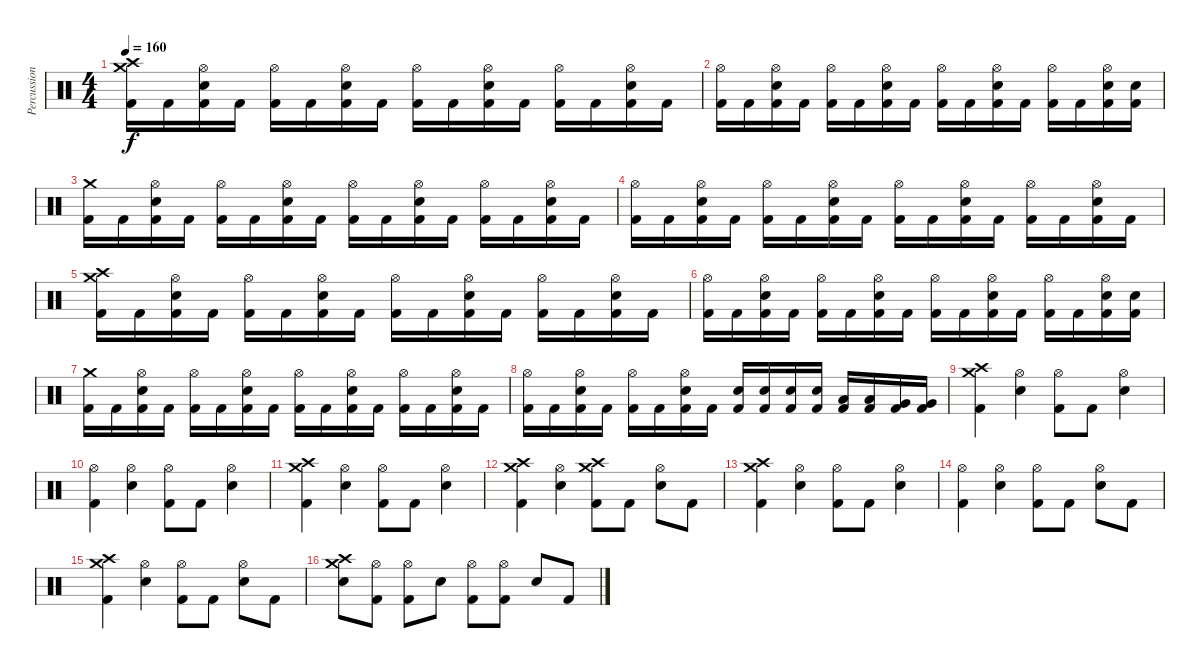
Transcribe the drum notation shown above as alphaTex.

\track ("Percussion" "Percussion") {instrument percussion}
\staff {score}
\articulation defaults
\ts (4 4)
\tempo 160
\clef neutral
\ks c
("Crash medium (hit)" "Crash high (hit)" "Kick (hit) 2").16{dy f} "Kick (hit) 2".16 ("Hi-Hat (open)" "Electric Snare (hit)" "Kick (hit) 2").16 "Kick (hit) 2".16 ("Hi-Hat (open)" "Kick (hit) 2").16 "Kick (hit) 2".16 ("Hi-Hat (open)" "Electric Snare (hit)" "Kick (hit) 2").16 "Kick (hit) 2".16 ("Hi-Hat (open)" "Kick (hit) 2").16 "Kick (hit) 2".16 ("Hi-Hat (open)" "Electric Snare (hit)" "Kick (hit) 2").16 "Kick (hit) 2".16 ("Hi-Hat (open)" "Kick (hit) 2").16 "Kick (hit) 2".16 ("Hi-Hat (open)" "Electric Snare (hit)" "Kick (hit) 2").16 "Kick (hit) 2".16 |
("Hi-Hat (open)" "Kick (hit) 2").16 "Kick (hit) 2".16 ("Hi-Hat (open)" "Electric Snare (hit)" "Kick (hit) 2").16 "Kick (hit) 2".16 ("Hi-Hat (open)" "Kick (hit) 2").16 "Kick (hit) 2".16 ("Hi-Hat (open)" "Electric Snare (hit)" "Kick (hit) 2").16 "Kick (hit) 2".16 ("Hi-Hat (open)" "Kick (hit) 2").16 "Kick (hit) 2".16 ("Hi-Hat (open)" "Electric Snare (hit)" "Kick (hit) 2").16 "Kick (hit) 2".16 ("Hi-Hat (open)" "Kick (hit) 2").16 "Kick (hit) 2".16 ("Hi-Hat (open)" "Electric Snare (hit)" "Kick (hit) 2").16 ("Electric Snare (hit)" "Kick (hit) 2").16 |
("Crash medium (hit)" "Kick (hit) 2").16 "Kick (hit) 2".16 ("Hi-Hat (open)" "Electric Snare (hit)" "Kick (hit) 2").16 "Kick (hit) 2".16 ("Hi-Hat (open)" "Kick (hit) 2").16 "Kick (hit) 2".16 ("Hi-Hat (open)" "Electric Snare (hit)" "Kick (hit) 2").16 "Kick (hit) 2".16 ("Hi-Hat (open)" "Kick (hit) 2").16 "Kick (hit) 2".16 ("Hi-Hat (open)" "Electric Snare (hit)" "Kick (hit) 2").16 "Kick (hit) 2".16 ("Hi-Hat (open)" "Kick (hit) 2").16 "Kick (hit) 2".16 ("Hi-Hat (open)" "Electric Snare (hit)" "Kick (hit) 2").16 "Kick (hit) 2".16 |
("Hi-Hat (open)" "Kick (hit) 2").16 "Kick (hit) 2".16 ("Hi-Hat (open)" "Electric Snare (hit)" "Kick (hit) 2").16 "Kick (hit) 2".16 ("Hi-Hat (open)" "Kick (hit) 2").16 "Kick (hit) 2".16 ("Hi-Hat (open)" "Electric Snare (hit)" "Kick (hit) 2").16 "Kick (hit) 2".16 ("Hi-Hat (open)" "Kick (hit) 2").16 "Kick (hit) 2".16 ("Hi-Hat (open)" "Electric Snare (hit)" "Kick (hit) 2").16 "Kick (hit) 2".16 ("Hi-Hat (open)" "Kick (hit) 2").16 "Kick (hit) 2".16 ("Hi-Hat (open)" "Electric Snare (hit)" "Kick (hit) 2").16 "Kick (hit) 2".16 |
("Crash medium (hit)" "Crash high (hit)" "Kick (hit) 2").16 "Kick (hit) 2".16 ("Hi-Hat (open)" "Electric Snare (hit)" "Kick (hit) 2").16 "Kick (hit) 2".16 ("Hi-Hat (open)" "Kick (hit) 2").16 "Kick (hit) 2".16 ("Hi-Hat (open)" "Electric Snare (hit)" "Kick (hit) 2").16 "Kick (hit) 2".16 ("Hi-Hat (open)" "Kick (hit) 2").16 "Kick (hit) 2".16 ("Hi-Hat (open)" "Electric Snare (hit)" "Kick (hit) 2").16 "Kick (hit) 2".16 ("Hi-Hat (open)" "Kick (hit) 2").16 "Kick (hit) 2".16 ("Hi-Hat (open)" "Electric Snare (hit)" "Kick (hit) 2").16 "Kick (hit) 2".16 |
("Hi-Hat (open)" "Kick (hit) 2").16 "Kick (hit) 2".16 ("Hi-Hat (open)" "Electric Snare (hit)" "Kick (hit) 2").16 "Kick (hit) 2".16 ("Hi-Hat (open)" "Kick (hit) 2").16 "Kick (hit) 2".16 ("Hi-Hat (open)" "Electric Snare (hit)" "Kick (hit) 2").16 "Kick (hit) 2".16 ("Hi-Hat (open)" "Kick (hit) 2").16 "Kick (hit) 2".16 ("Hi-Hat (open)" "Electric Snare (hit)" "Kick (hit) 2").16 "Kick (hit) 2".16 ("Hi-Hat (open)" "Kick (hit) 2").16 "Kick (hit) 2".16 ("Hi-Hat (open)" "Electric Snare (hit)" "Kick (hit) 2").16 ("Electric Snare (hit)" "Kick (hit) 2").16 |
("Crash medium (hit)" "Kick (hit) 2").16 "Kick (hit) 2".16 ("Hi-Hat (open)" "Electric Snare (hit)" "Kick (hit) 2").16 "Kick (hit) 2".16 ("Hi-Hat (open)" "Kick (hit) 2").16 "Kick (hit) 2".16 ("Hi-Hat (open)" "Electric Snare (hit)" "Kick (hit) 2").16 "Kick (hit) 2".16 ("Hi-Hat (open)" "Kick (hit) 2").16 "Kick (hit) 2".16 ("Hi-Hat (open)" "Electric Snare (hit)" "Kick (hit) 2").16 "Kick (hit) 2".16 ("Hi-Hat (open)" "Kick (hit) 2").16 "Kick (hit) 2".16 ("Hi-Hat (open)" "Electric Snare (hit)" "Kick (hit) 2").16 "Kick (hit) 2".16 |
("Hi-Hat (open)" "Kick (hit) 2").16 "Kick (hit) 2".16 ("Hi-Hat (open)" "Electric Snare (hit)" "Kick (hit) 2").16 "Kick (hit) 2".16 ("Hi-Hat (open)" "Kick (hit) 2").16 "Kick (hit) 2".16 ("Hi-Hat (open)" "Electric Snare (hit)" "Kick (hit) 2").16 "Kick (hit) 2".16 ("Electric Snare (hit)" "Kick (hit) 2").16 ("Electric Snare (hit)" "Kick (hit) 2").16 ("Electric Snare (hit)" "Kick (hit) 2").16 ("Electric Snare (hit)" "Kick (hit) 2").16 ("Low Tom (hit)" "Kick (hit) 2").16 ("Low Tom (hit)" "Kick (hit) 2").16 ("Very Low Tom (hit)" "Kick (hit) 2").16 ("Very Low Tom (hit)" "Kick (hit) 2").16 |
("Crash medium (hit)" "Crash high (hit)" "Kick (hit) 2").4 ("Hi-Hat (open)" "Electric Snare (hit)").4 ("Hi-Hat (open)" "Kick (hit) 2").8 "Kick (hit) 2".8 ("Hi-Hat (open)" "Electric Snare (hit)").4 |
("Hi-Hat (open)" "Kick (hit) 2").4 ("Hi-Hat (open)" "Electric Snare (hit)").4 ("Hi-Hat (open)" "Kick (hit) 2").8 "Kick (hit) 2".8 ("Hi-Hat (open)" "Electric Snare (hit)").4 |
("Crash medium (hit)" "Crash high (hit)" "Kick (hit) 2").4 ("Hi-Hat (open)" "Electric Snare (hit)").4 ("Hi-Hat (open)" "Kick (hit) 2").8 "Kick (hit) 2".8 ("Hi-Hat (open)" "Electric Snare (hit)").4 |
("Crash medium (hit)" "Crash high (hit)" "Kick (hit) 2").4 ("Hi-Hat (open)" "Electric Snare (hit)").4 ("Crash medium (hit)" "Crash high (hit)" "Kick (hit) 2").8 "Kick (hit) 2".8 ("Hi-Hat (open)" "Electric Snare (hit)").8 "Kick (hit) 2".8 |
("Crash medium (hit)" "Crash high (hit)" "Kick (hit) 2").4 ("Hi-Hat (open)" "Electric Snare (hit)").4 ("Hi-Hat (open)" "Kick (hit) 2").8 "Kick (hit) 2".8 ("Hi-Hat (open)" "Electric Snare (hit)").4 |
("Hi-Hat (open)" "Kick (hit) 2").4 ("Hi-Hat (open)" "Electric Snare (hit)").4 ("Hi-Hat (open)" "Kick (hit) 2").8 "Kick (hit) 2".8 ("Hi-Hat (open)" "Electric Snare (hit)").8 "Kick (hit) 2".8 |
("Crash high (hit)" "Crash medium (hit)" "Kick (hit) 2").4 ("Hi-Hat (open)" "Electric Snare (hit)").4 ("Hi-Hat (open)" "Kick (hit) 2").8 "Kick (hit) 2".8 ("Hi-Hat (open)" "Electric Snare (hit)").8 "Kick (hit) 2".8 |
("Crash medium (hit)" "Crash high (hit)" "Electric Snare (hit)").8 ("Hi-Hat (open)" "Kick (hit) 2").8 ("Hi-Hat (open)" "Kick (hit) 2").8 "Electric Snare (hit)".8 ("Hi-Hat (open)" "Kick (hit) 2").8 ("Hi-Hat (open)" "Kick (hit) 2").8 "Electric Snare (hit)".8 "Kick (hit) 2".8
